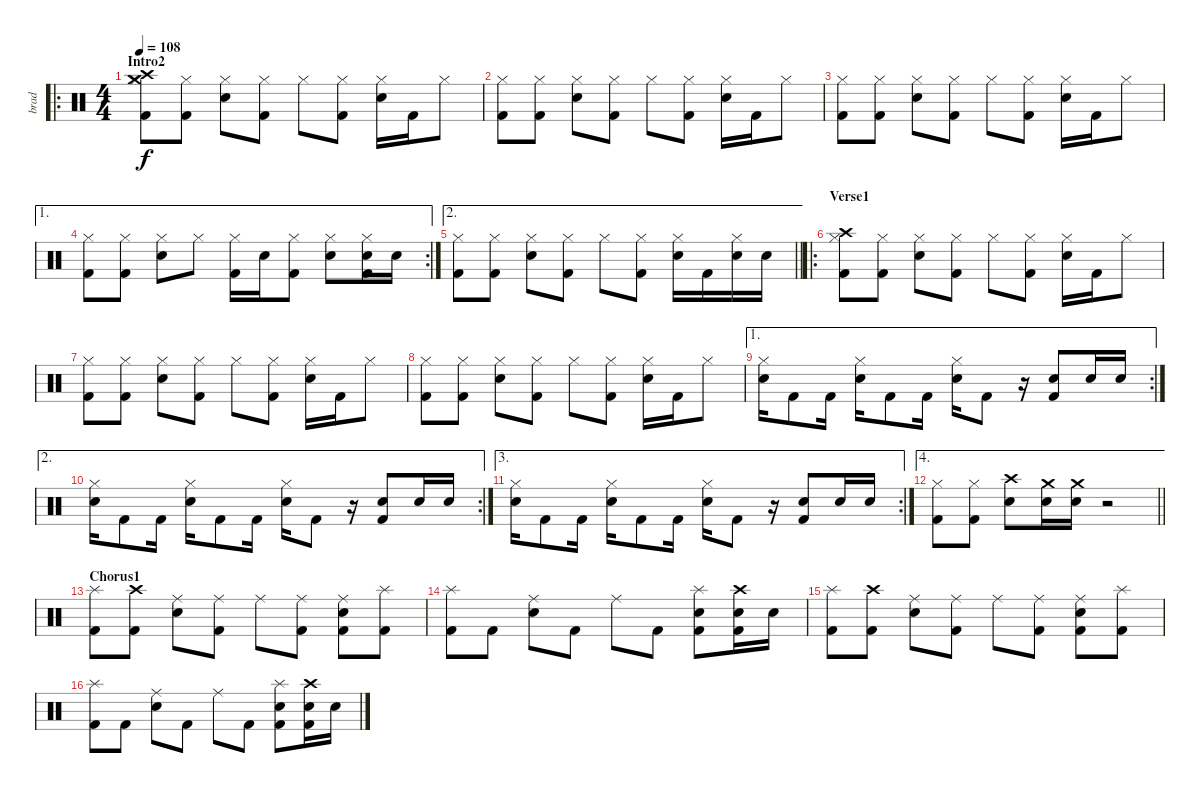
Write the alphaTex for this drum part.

\track ("brad" "brad") {instrument percussion}
\staff {score}
\articulation defaults
\ro
\ts (4 4)
\section ("" "Intro2")
\tempo 108
\clef neutral
\ks c
("Crash medium (hit)" "Crash high (hit)" "Hi-Hat (closed)" "Kick (hit) 2").8{dy f} ("Hi-Hat (closed)" "Kick (hit) 2").8 ("Hi-Hat (closed)" "Electric Snare (hit)").8 ("Hi-Hat (closed)" "Kick (hit) 2").8 "Hi-Hat (closed)".8 ("Hi-Hat (closed)" "Kick (hit) 2").8 ("Hi-Hat (closed)" "Electric Snare (hit)").16 "Kick (hit) 2".16 "Hi-Hat (closed)".8 |
("Hi-Hat (closed)" "Kick (hit) 2").8 ("Hi-Hat (closed)" "Kick (hit) 2").8 ("Hi-Hat (closed)" "Electric Snare (hit)").8 ("Hi-Hat (closed)" "Kick (hit) 2").8 "Hi-Hat (closed)".8 ("Hi-Hat (closed)" "Kick (hit) 2").8 ("Hi-Hat (closed)" "Electric Snare (hit)").16 "Kick (hit) 2".16 "Hi-Hat (closed)".8 |
("Hi-Hat (closed)" "Kick (hit) 2").8 ("Hi-Hat (closed)" "Kick (hit) 2").8 ("Hi-Hat (closed)" "Electric Snare (hit)").8 ("Hi-Hat (closed)" "Kick (hit) 2").8 "Hi-Hat (closed)".8 ("Hi-Hat (closed)" "Kick (hit) 2").8 ("Hi-Hat (closed)" "Electric Snare (hit)").16 "Kick (hit) 2".16 "Hi-Hat (closed)".8 |
\ae 1
\rc 2
("Hi-Hat (closed)" "Kick (hit) 2").8 ("Hi-Hat (closed)" "Kick (hit) 2").8 ("Hi-Hat (closed)" "Electric Snare (hit)").8 "Hi-Hat (closed)".8 ("Hi-Hat (closed)" "Kick (hit) 2").16 "Electric Snare (hit)".16 ("Hi-Hat (closed)" "Kick (hit) 2").8 ("Hi-Hat (closed)" "Electric Snare (hit)").8 ("Hi-Hat (closed)" "Electric Snare (hit)" "Kick (hit) 2").16 "Electric Snare (hit)".16 |
\ae 2
\barLineRight lightlight
("Hi-Hat (closed)" "Kick (hit) 2").8 ("Hi-Hat (closed)" "Kick (hit) 2").8 ("Hi-Hat (closed)" "Electric Snare (hit)").8 ("Hi-Hat (closed)" "Kick (hit) 2").8 "Hi-Hat (closed)".8 ("Hi-Hat (closed)" "Kick (hit) 2").8 ("Hi-Hat (closed)" "Electric Snare (hit)").16 "Kick (hit) 2".16 ("Hi-Hat (closed)" "Electric Snare (hit)").16 "Electric Snare (hit)".16 |
\ro
\section ("" "Verse1")
("Crash high (hit)" "Hi-Hat (closed)" "Kick (hit) 2").8 ("Hi-Hat (closed)" "Kick (hit) 2").8 ("Hi-Hat (closed)" "Electric Snare (hit)").8 ("Hi-Hat (closed)" "Kick (hit) 2").8 "Hi-Hat (closed)".8 ("Hi-Hat (closed)" "Kick (hit) 2").8 ("Hi-Hat (closed)" "Electric Snare (hit)").16 "Kick (hit) 2".16 "Hi-Hat (closed)".8 |
("Hi-Hat (closed)" "Kick (hit) 2").8 ("Hi-Hat (closed)" "Kick (hit) 2").8 ("Hi-Hat (closed)" "Electric Snare (hit)").8 ("Hi-Hat (closed)" "Kick (hit) 2").8 "Hi-Hat (closed)".8 ("Hi-Hat (closed)" "Kick (hit) 2").8 ("Hi-Hat (closed)" "Electric Snare (hit)").16 "Kick (hit) 2".16 "Hi-Hat (closed)".8 |
("Hi-Hat (closed)" "Kick (hit) 2").8 ("Hi-Hat (closed)" "Kick (hit) 2").8 ("Hi-Hat (closed)" "Electric Snare (hit)").8 ("Hi-Hat (closed)" "Kick (hit) 2").8 "Hi-Hat (closed)".8 ("Hi-Hat (closed)" "Kick (hit) 2").8 ("Hi-Hat (closed)" "Electric Snare (hit)").16 "Kick (hit) 2".16 "Hi-Hat (closed)".8 |
\ae 1
\rc 2
("Hi-Hat (closed)" "Electric Snare (hit)").16 "Kick (hit) 2".8 "Kick (hit) 2".16 ("Hi-Hat (closed)" "Electric Snare (hit)").16 "Kick (hit) 2".8 "Kick (hit) 2".16 ("Hi-Hat (closed)" "Electric Snare (hit)").16 "Kick (hit) 2".8 r.16 ("Electric Snare (hit)" "Kick (hit) 2").8 "Electric Snare (hit)".16 "Electric Snare (hit)".16 |
\ae 2
\rc 2
("Hi-Hat (closed)" "Electric Snare (hit)").16 "Kick (hit) 2".8 "Kick (hit) 2".16 ("Hi-Hat (closed)" "Electric Snare (hit)").16 "Kick (hit) 2".8 "Kick (hit) 2".16 ("Hi-Hat (closed)" "Electric Snare (hit)").16 "Kick (hit) 2".8 r.16 ("Electric Snare (hit)" "Kick (hit) 2").8 "Electric Snare (hit)".16 "Electric Snare (hit)".16 |
\ae 3
\rc 2
("Hi-Hat (closed)" "Electric Snare (hit)").16 "Kick (hit) 2".8 "Kick (hit) 2".16 ("Hi-Hat (closed)" "Electric Snare (hit)").16 "Kick (hit) 2".8 "Kick (hit) 2".16 ("Hi-Hat (closed)" "Electric Snare (hit)").16 "Kick (hit) 2".8 r.16 ("Electric Snare (hit)" "Kick (hit) 2").8 "Electric Snare (hit)".16 "Electric Snare (hit)".16 |
\ae 4
\barLineRight lightlight
("Hi-Hat (closed)" "Kick (hit) 2").8 ("Hi-Hat (closed)" "Kick (hit) 2").8 ("Crash high (hit)" "Electric Snare (hit)").8 ("Crash medium (hit)" "Electric Snare (hit)").16 ("Crash medium (hit)" "Electric Snare (hit)").16 r.2 |
\section ("" "Chorus1")
("Splash (hit)" "Kick (hit) 2").8 ("Crash high (hit)" "Kick (hit) 2").8 ("Ride (middle)" "Electric Snare (hit)").8 ("Ride (middle)" "Kick (hit) 2").8 "Ride (middle)".8 ("Ride (middle)" "Kick (hit) 2").8 ("Ride (middle)" "Electric Snare (hit)" "Kick (hit) 2").8 ("Splash (hit)" "Kick (hit) 2").8 |
("Splash (hit)" "Kick (hit) 2").8 "Kick (hit) 2".8 ("Ride (middle)" "Electric Snare (hit)").8 "Kick (hit) 2".8 "Ride (middle)".8 "Kick (hit) 2".8 ("Splash (hit)" "Electric Snare (hit)" "Kick (hit) 2").8 ("Crash high (hit)" "Electric Snare (hit)" "Kick (hit) 2").16 "Electric Snare (hit)".16 |
("Splash (hit)" "Kick (hit) 2").8 ("Crash high (hit)" "Kick (hit) 2").8 ("Ride (middle)" "Electric Snare (hit)").8 ("Ride (middle)" "Kick (hit) 2").8 "Ride (middle)".8 ("Ride (middle)" "Kick (hit) 2").8 ("Ride (middle)" "Electric Snare (hit)" "Kick (hit) 2").8 ("Splash (hit)" "Kick (hit) 2").8 |
("Splash (hit)" "Kick (hit) 2").8 "Kick (hit) 2".8 ("Ride (middle)" "Electric Snare (hit)").8 "Kick (hit) 2".8 "Ride (middle)".8 "Kick (hit) 2".8 ("Splash (hit)" "Electric Snare (hit)" "Kick (hit) 2").8 ("Crash high (hit)" "Electric Snare (hit)" "Kick (hit) 2").16 "Electric Snare (hit)".16
